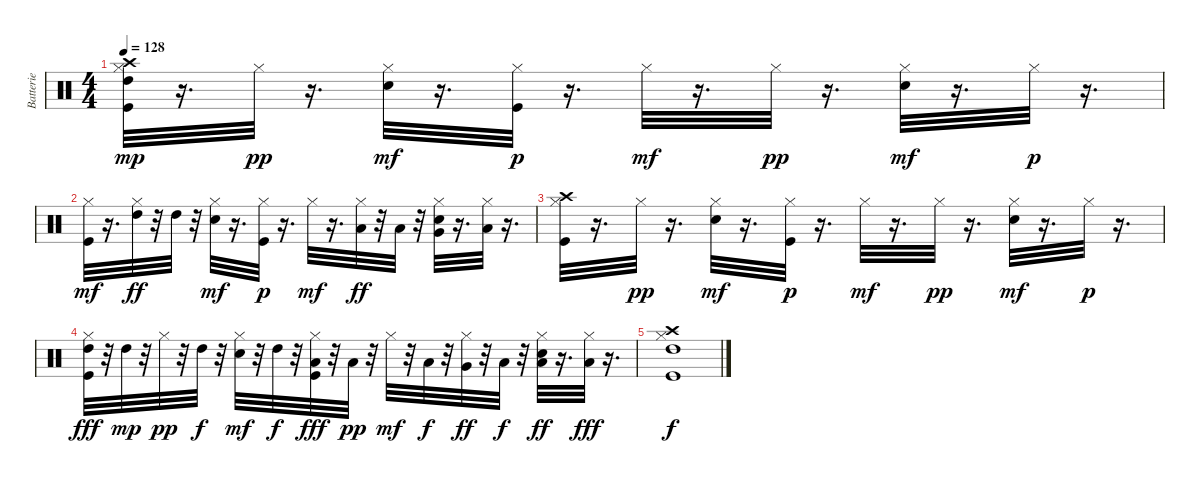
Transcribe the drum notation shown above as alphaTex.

\track ("Batterie" "Batterie") {instrument percussion}
\staff {score}
\articulation defaults
\ts (4 4)
\tempo 128
\clef neutral
\ks c
("Kick (hit)" "Hi-Hat (closed)" "High Tom (hit)" "Crash high (hit)").32{dy mp} r.16{d} "Hi-Hat (closed)".32{dy pp} r.16{d} ("Electric Snare (hit)" "Hi-Hat (closed)").32{dy mf} r.16{d} ("Kick (hit)" "Hi-Hat (closed)").32{dy p} r.16{d} "Hi-Hat (closed)".32{dy mf} r.16{d} "Hi-Hat (closed)".32{dy pp} r.16{d} ("Electric Snare (hit)" "Hi-Hat (closed)").32{dy mf} r.16{d} "Hi-Hat (closed)".32{dy p} r.16{d} |
("Kick (hit)" "Hi-Hat (closed)").32{dy mf} r.16{d} ("Hi-Hat (closed)" "High Tom (hit)").32{dy ff} r.32 "High Tom (hit)".32 r.32 ("Electric Snare (hit)" "Hi-Hat (closed)").32{dy mf} r.16{d} ("Kick (hit)" "Hi-Hat (closed)").32{dy p} r.16{d} "Hi-Hat (closed)".32{dy mf} r.16{d} ("Hi-Hat (closed)" "Low Tom (hit)").32{dy ff} r.32 "Low Tom (hit)".32 r.32 ("Electric Snare (hit)" "Hi-Hat (closed)" "Very Low Tom (hit)").32 r.16{d} ("Hi-Hat (closed)" "Low Floor Tom (hit)").32 r.16{d} |
("Kick (hit)" "Hi-Hat (closed)" "Crash high (hit)").32 r.16{d} "Hi-Hat (closed)".32{dy pp} r.16{d} ("Electric Snare (hit)" "Hi-Hat (closed)").32{dy mf} r.16{d} ("Kick (hit)" "Hi-Hat (closed)").32{dy p} r.16{d} "Hi-Hat (closed)".32{dy mf} r.16{d} "Hi-Hat (closed)".32{dy pp} r.16{d} ("Electric Snare (hit)" "Hi-Hat (closed)").32{dy mf} r.16{d} "Hi-Hat (closed)".32{dy p} r.16{d} |
("Kick (hit)" "Hi-Hat (closed)" "High Tom (hit)").32{dy fff} r.32 "High Tom (hit)".32{dy mp} r.32 "Hi-Hat (closed)".32{dy pp} r.32 "High Tom (hit)".32{dy f} r.32 ("Electric Snare (hit)" "Hi-Hat (closed)").32{dy mf} r.32 "High Tom (hit)".32{dy f} r.32 ("Kick (hit)" "Hi-Hat (closed)" "Low Tom (hit)").32{dy fff} r.32 "Low Tom (hit)".32{dy pp} r.32 "Hi-Hat (closed)".32{dy mf} r.32 "Low Tom (hit)".32{dy f} r.32 ("Hi-Hat (closed)" "Very Low Tom (hit)").32{dy ff} r.32 "Low Tom (hit)".32{dy f} r.32 ("Electric Snare (hit)" "Hi-Hat (closed)" "Low Floor Tom (hit)").32{dy ff} r.16{d} ("Hi-Hat (closed)" "Low Floor Tom (hit)").32{dy fff} r.16{d} |
("Kick (hit)" "Hi-Hat (closed)" "High Tom (hit)" "Crash high (hit)").1{dy f}
